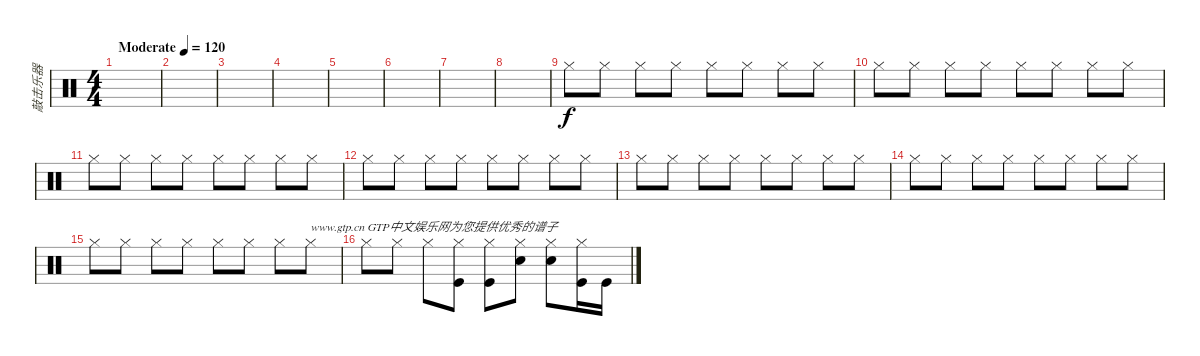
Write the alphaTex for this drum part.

\track ("敲击乐器" "敲击乐器") {instrument percussion}
\staff {score}
\articulation defaults
\ts (4 4)
\tempo (120 "Moderate")
\clef neutral
\ks c
|
|
|
|
|
|
|
|
"Hi-Hat (closed)".8 "Hi-Hat (closed)".8 "Hi-Hat (closed)".8 "Hi-Hat (closed)".8 "Hi-Hat (closed)".8 "Hi-Hat (closed)".8 "Hi-Hat (closed)".8 "Hi-Hat (closed)".8 |
"Hi-Hat (closed)".8 "Hi-Hat (closed)".8 "Hi-Hat (closed)".8 "Hi-Hat (closed)".8 "Hi-Hat (closed)".8 "Hi-Hat (closed)".8 "Hi-Hat (closed)".8 "Hi-Hat (closed)".8 |
"Hi-Hat (closed)".8 "Hi-Hat (closed)".8 "Hi-Hat (closed)".8 "Hi-Hat (closed)".8 "Hi-Hat (closed)".8 "Hi-Hat (closed)".8 "Hi-Hat (closed)".8 "Hi-Hat (closed)".8 |
"Hi-Hat (closed)".8 "Hi-Hat (closed)".8 "Hi-Hat (closed)".8 "Hi-Hat (closed)".8 "Hi-Hat (closed)".8 "Hi-Hat (closed)".8 "Hi-Hat (closed)".8 "Hi-Hat (closed)".8 |
"Hi-Hat (closed)".8 "Hi-Hat (closed)".8 "Hi-Hat (closed)".8 "Hi-Hat (closed)".8 "Hi-Hat (closed)".8 "Hi-Hat (closed)".8 "Hi-Hat (closed)".8 "Hi-Hat (closed)".8 |
"Hi-Hat (closed)".8 "Hi-Hat (closed)".8 "Hi-Hat (closed)".8 "Hi-Hat (closed)".8 "Hi-Hat (closed)".8 "Hi-Hat (closed)".8 "Hi-Hat (closed)".8 "Hi-Hat (closed)".8 |
"Hi-Hat (closed)".8 "Hi-Hat (closed)".8 "Hi-Hat (closed)".8 "Hi-Hat (closed)".8 "Hi-Hat (closed)".8 "Hi-Hat (closed)".8 "Hi-Hat (closed)".8 "Hi-Hat (closed)".8{txt "www.gtp.cn GTP中文娱乐网为您提供优秀的谱子"} |
"Hi-Hat (closed)".8 "Hi-Hat (closed)".8 "Hi-Hat (closed)".8 ("Hi-Hat (closed)" "Kick (hit)").8 ("Hi-Hat (closed)" "Kick (hit)").8 ("Hi-Hat (closed)" "Snare (hit) 2").8 ("Hi-Hat (closed)" "Snare (hit) 2").8 ("Hi-Hat (closed)" "Kick (hit)").16 "Kick (hit)".16
